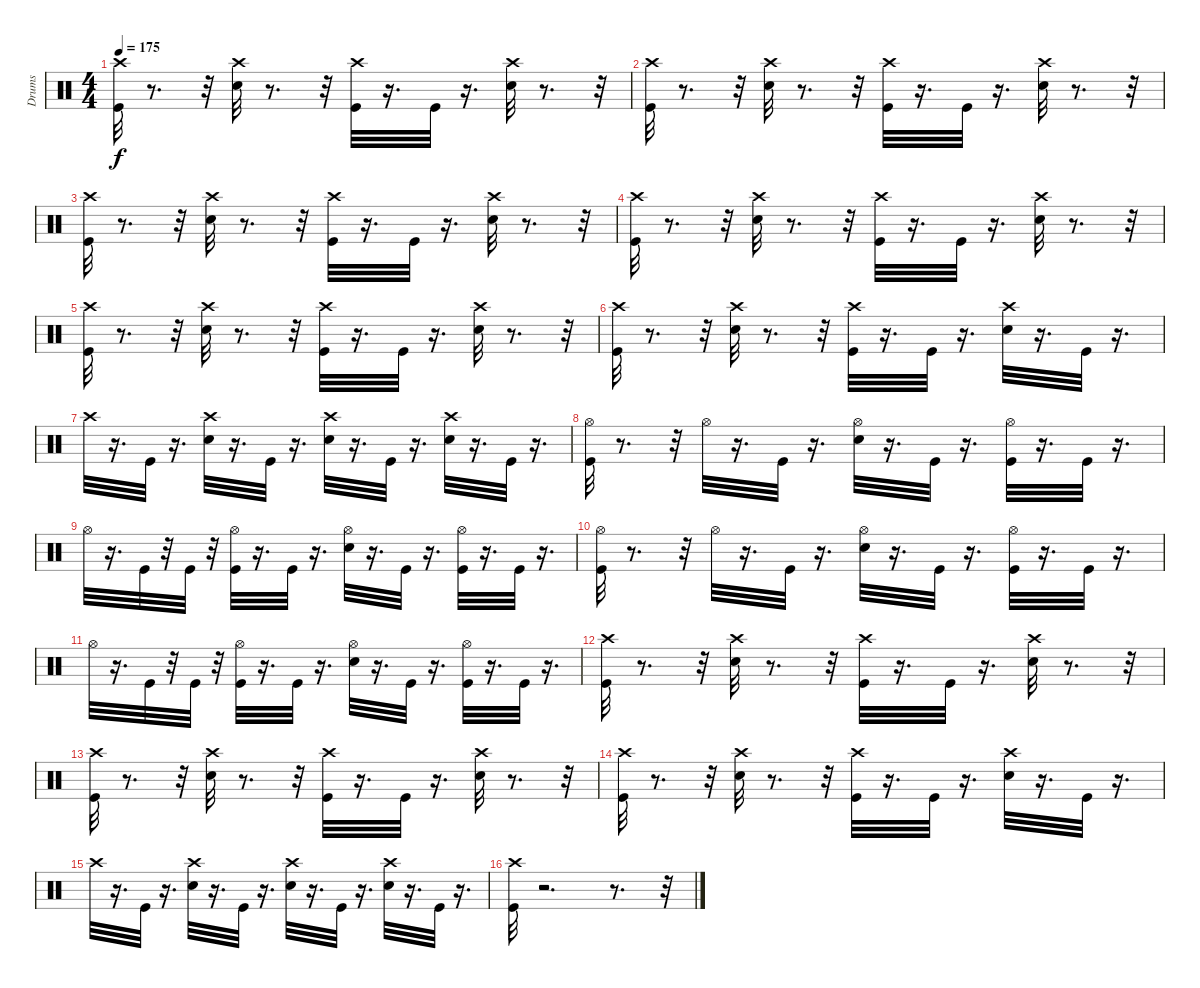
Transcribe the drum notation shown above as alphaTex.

\track ("Drums" "Drums") {instrument percussion}
\staff {score}
\articulation defaults
\ts (4 4)
\tempo 175
\clef neutral
\ks c
("Crash high (hit)" "Kick (hit)").32{dy f} r.8{d} r.32 ("Crash high (hit)" "Electric Snare (hit)").32 r.8{d} r.32 ("Crash high (hit)" "Kick (hit)").32 r.16{d} "Kick (hit)".32 r.16{d} ("Crash high (hit)" "Electric Snare (hit)").32 r.8{d} r.32 |
("Crash high (hit)" "Kick (hit)").32 r.8{d} r.32 ("Crash high (hit)" "Electric Snare (hit)").32 r.8{d} r.32 ("Crash high (hit)" "Kick (hit)").32 r.16{d} "Kick (hit)".32 r.16{d} ("Crash high (hit)" "Electric Snare (hit)").32 r.8{d} r.32 |
("Crash high (hit)" "Kick (hit)").32 r.8{d} r.32 ("Crash high (hit)" "Electric Snare (hit)").32 r.8{d} r.32 ("Crash high (hit)" "Kick (hit)").32 r.16{d} "Kick (hit)".32 r.16{d} ("Crash high (hit)" "Electric Snare (hit)").32 r.8{d} r.32 |
("Crash high (hit)" "Kick (hit)").32 r.8{d} r.32 ("Crash high (hit)" "Electric Snare (hit)").32 r.8{d} r.32 ("Crash high (hit)" "Kick (hit)").32 r.16{d} "Kick (hit)".32 r.16{d} ("Crash high (hit)" "Electric Snare (hit)").32 r.8{d} r.32 |
("Crash high (hit)" "Kick (hit)").32 r.8{d} r.32 ("Crash high (hit)" "Electric Snare (hit)").32 r.8{d} r.32 ("Crash high (hit)" "Kick (hit)").32 r.16{d} "Kick (hit)".32 r.16{d} ("Crash high (hit)" "Electric Snare (hit)").32 r.8{d} r.32 |
("Crash high (hit)" "Kick (hit)").32 r.8{d} r.32 ("Crash high (hit)" "Electric Snare (hit)").32 r.8{d} r.32 ("Crash high (hit)" "Kick (hit)").32 r.16{d} "Kick (hit)".32 r.16{d} ("Crash high (hit)" "Electric Snare (hit)").32 r.16{d} "Kick (hit)".32 r.16{d} |
"Crash high (hit)".32 r.16{d} "Kick (hit)".32 r.16{d} ("Crash high (hit)" "Electric Snare (hit)").32 r.16{d} "Kick (hit)".32 r.16{d} ("Crash high (hit)" "Electric Snare (hit)").32 r.16{d} "Kick (hit)".32 r.16{d} ("Crash high (hit)" "Electric Snare (hit)").32 r.16{d} "Kick (hit)".32 r.16{d} |
("Hi-Hat (open)" "Kick (hit)").32 r.8{d} r.32 "Hi-Hat (open)".32 r.16{d} "Kick (hit)".32 r.16{d} ("Electric Snare (hit)" "Hi-Hat (open)").32 r.16{d} "Kick (hit)".32 r.16{d} ("Hi-Hat (open)" "Kick (hit)").32 r.16{d} "Kick (hit)".32 r.16{d} |
"Hi-Hat (open)".32 r.16{d} "Kick (hit)".32 r.32 "Kick (hit)".32 r.32 ("Kick (hit)" "Hi-Hat (open)").32 r.16{d} "Kick (hit)".32 r.16{d} ("Hi-Hat (open)" "Electric Snare (hit)").32 r.16{d} "Kick (hit)".32 r.16{d} ("Kick (hit)" "Hi-Hat (open)").32 r.16{d} "Kick (hit)".32 r.16{d} |
("Hi-Hat (open)" "Kick (hit)").32 r.8{d} r.32 "Hi-Hat (open)".32 r.16{d} "Kick (hit)".32 r.16{d} ("Electric Snare (hit)" "Hi-Hat (open)").32 r.16{d} "Kick (hit)".32 r.16{d} ("Hi-Hat (open)" "Kick (hit)").32 r.16{d} "Kick (hit)".32 r.16{d} |
"Hi-Hat (open)".32 r.16{d} "Kick (hit)".32 r.32 "Kick (hit)".32 r.32 ("Kick (hit)" "Hi-Hat (open)").32 r.16{d} "Kick (hit)".32 r.16{d} ("Hi-Hat (open)" "Electric Snare (hit)").32 r.16{d} "Kick (hit)".32 r.16{d} ("Kick (hit)" "Hi-Hat (open)").32 r.16{d} "Kick (hit)".32 r.16{d} |
("Crash high (hit)" "Kick (hit)").32 r.8{d} r.32 ("Crash high (hit)" "Electric Snare (hit)").32 r.8{d} r.32 ("Crash high (hit)" "Kick (hit)").32 r.16{d} "Kick (hit)".32 r.16{d} ("Crash high (hit)" "Electric Snare (hit)").32 r.8{d} r.32 |
("Crash high (hit)" "Kick (hit)").32 r.8{d} r.32 ("Crash high (hit)" "Electric Snare (hit)").32 r.8{d} r.32 ("Crash high (hit)" "Kick (hit)").32 r.16{d} "Kick (hit)".32 r.16{d} ("Crash high (hit)" "Electric Snare (hit)").32 r.8{d} r.32 |
("Crash high (hit)" "Kick (hit)").32 r.8{d} r.32 ("Electric Snare (hit)" "Crash high (hit)").32 r.8{d} r.32 ("Kick (hit)" "Crash high (hit)").32 r.16{d} "Kick (hit)".32 r.16{d} ("Electric Snare (hit)" "Crash high (hit)").32 r.16{d} "Kick (hit)".32 r.16{d} |
"Crash high (hit)".32 r.16{d} "Kick (hit)".32 r.16{d} ("Crash high (hit)" "Electric Snare (hit)").32 r.16{d} "Kick (hit)".32 r.16{d} ("Crash high (hit)" "Electric Snare (hit)").32 r.16{d} "Kick (hit)".32 r.16{d} ("Crash high (hit)" "Electric Snare (hit)").32 r.16{d} "Kick (hit)".32 r.16{d} |
("Crash high (hit)" "Kick (hit)").32 r.2{d} r.8{d} r.32
